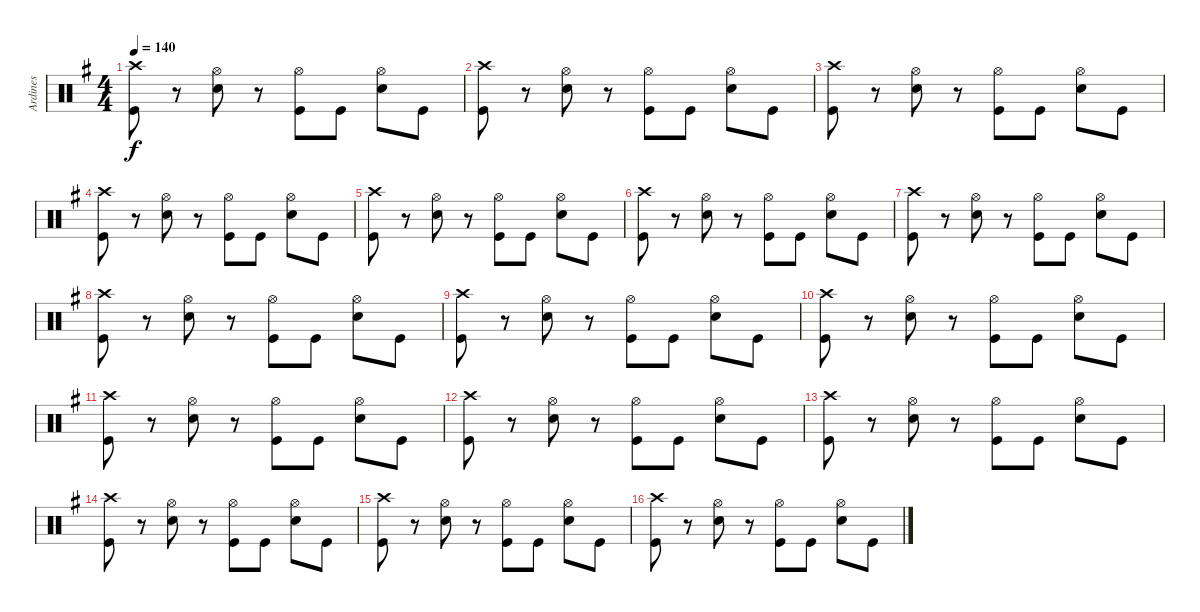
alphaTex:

\track ("Ardines" "Ardines") {instrument percussion}
\staff {score}
\articulation defaults
\ts (4 4)
\tempo 140
\clef neutral
\ks g
("Crash high (hit)" "Kick (hit)").8{dy f} r.8 ("Hi-Hat (open)" "Electric Snare (hit)").8 r.8 ("Hi-Hat (open)" "Kick (hit)").8 "Kick (hit)".8 ("Hi-Hat (open)" "Electric Snare (hit)").8 "Kick (hit)".8 |
("Crash high (hit)" "Kick (hit)").8 r.8 ("Hi-Hat (open)" "Electric Snare (hit)").8 r.8 ("Hi-Hat (open)" "Kick (hit)").8 "Kick (hit)".8 ("Hi-Hat (open)" "Electric Snare (hit)").8 "Kick (hit)".8 |
("Crash high (hit)" "Kick (hit)").8 r.8 ("Hi-Hat (open)" "Electric Snare (hit)").8 r.8 ("Hi-Hat (open)" "Kick (hit)").8 "Kick (hit)".8 ("Hi-Hat (open)" "Electric Snare (hit)").8 "Kick (hit)".8 |
("Crash high (hit)" "Kick (hit)").8 r.8 ("Hi-Hat (open)" "Electric Snare (hit)").8 r.8 ("Hi-Hat (open)" "Kick (hit)").8 "Kick (hit)".8 ("Hi-Hat (open)" "Electric Snare (hit)").8 "Kick (hit)".8 |
("Crash high (hit)" "Kick (hit)").8 r.8 ("Hi-Hat (open)" "Electric Snare (hit)").8 r.8 ("Hi-Hat (open)" "Kick (hit)").8 "Kick (hit)".8 ("Hi-Hat (open)" "Electric Snare (hit)").8 "Kick (hit)".8 |
("Crash high (hit)" "Kick (hit)").8 r.8 ("Hi-Hat (open)" "Electric Snare (hit)").8 r.8 ("Hi-Hat (open)" "Kick (hit)").8 "Kick (hit)".8 ("Hi-Hat (open)" "Electric Snare (hit)").8 "Kick (hit)".8 |
("Crash high (hit)" "Kick (hit)").8 r.8 ("Hi-Hat (open)" "Electric Snare (hit)").8 r.8 ("Hi-Hat (open)" "Kick (hit)").8 "Kick (hit)".8 ("Hi-Hat (open)" "Electric Snare (hit)").8 "Kick (hit)".8 |
("Crash high (hit)" "Kick (hit)").8 r.8 ("Hi-Hat (open)" "Electric Snare (hit)").8 r.8 ("Hi-Hat (open)" "Kick (hit)").8 "Kick (hit)".8 ("Hi-Hat (open)" "Electric Snare (hit)").8 "Kick (hit)".8 |
("Crash high (hit)" "Kick (hit)").8 r.8 ("Hi-Hat (open)" "Electric Snare (hit)").8 r.8 ("Hi-Hat (open)" "Kick (hit)").8 "Kick (hit)".8 ("Hi-Hat (open)" "Electric Snare (hit)").8 "Kick (hit)".8 |
("Crash high (hit)" "Kick (hit)").8 r.8 ("Hi-Hat (open)" "Electric Snare (hit)").8 r.8 ("Hi-Hat (open)" "Kick (hit)").8 "Kick (hit)".8 ("Hi-Hat (open)" "Electric Snare (hit)").8 "Kick (hit)".8 |
("Crash high (hit)" "Kick (hit)").8 r.8 ("Hi-Hat (open)" "Electric Snare (hit)").8 r.8 ("Hi-Hat (open)" "Kick (hit)").8 "Kick (hit)".8 ("Hi-Hat (open)" "Electric Snare (hit)").8 "Kick (hit)".8 |
("Crash high (hit)" "Kick (hit)").8 r.8 ("Hi-Hat (open)" "Electric Snare (hit)").8 r.8 ("Hi-Hat (open)" "Kick (hit)").8 "Kick (hit)".8 ("Hi-Hat (open)" "Electric Snare (hit)").8 "Kick (hit)".8 |
("Crash high (hit)" "Kick (hit)").8 r.8 ("Hi-Hat (open)" "Electric Snare (hit)").8 r.8 ("Hi-Hat (open)" "Kick (hit)").8 "Kick (hit)".8 ("Hi-Hat (open)" "Electric Snare (hit)").8 "Kick (hit)".8 |
("Crash high (hit)" "Kick (hit)").8 r.8 ("Hi-Hat (open)" "Electric Snare (hit)").8 r.8 ("Hi-Hat (open)" "Kick (hit)").8 "Kick (hit)".8 ("Hi-Hat (open)" "Electric Snare (hit)").8 "Kick (hit)".8 |
("Crash high (hit)" "Kick (hit)").8 r.8 ("Hi-Hat (open)" "Electric Snare (hit)").8 r.8 ("Hi-Hat (open)" "Kick (hit)").8 "Kick (hit)".8 ("Hi-Hat (open)" "Electric Snare (hit)").8 "Kick (hit)".8 |
("Crash high (hit)" "Kick (hit)").8 r.8 ("Hi-Hat (open)" "Electric Snare (hit)").8 r.8 ("Hi-Hat (open)" "Kick (hit)").8 "Kick (hit)".8 ("Hi-Hat (open)" "Electric Snare (hit)").8 "Kick (hit)".8
